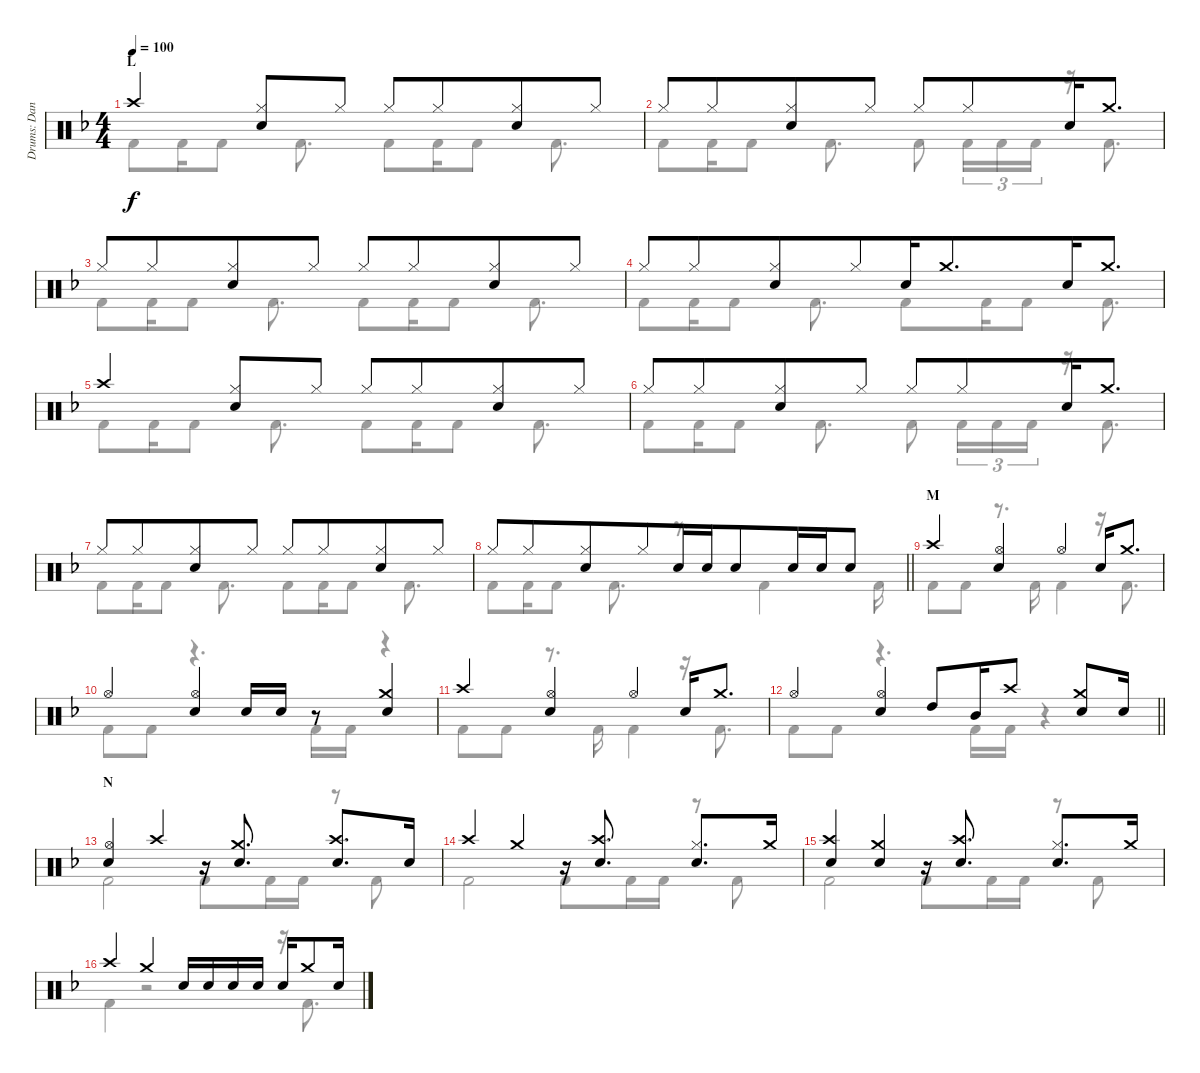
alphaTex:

\track ("Drums: Dana" "Drums: Dan") {instrument percussion}
\staff {score}
\articulation defaults
\voice
\ts (4 4)
\section ("" "L")
\tempo 100
\clef neutral
\ks f "Crash high (hit)".4{dy f beam merge}
("Hi-Hat (closed)" "Snare (hit) 2").8 "Hi-Hat (closed)".8 "Hi-Hat (closed)".8 "Hi-Hat (closed)".8{beam merge} ("Hi-Hat (closed)" "Snare (hit) 2").8 "Hi-Hat (closed)".8 |
"Hi-Hat (closed)".8 "Hi-Hat (closed)".8{beam merge} ("Hi-Hat (closed)" "Snare (hit) 2").8 "Hi-Hat (closed)".8 "Hi-Hat (closed)".8 "Hi-Hat (closed)".8{beam merge} "Snare (hit) 2".16 "Crash medium (hit)".8{d} |
"Hi-Hat (closed)".8 "Hi-Hat (closed)".8{beam merge} ("Hi-Hat (closed)" "Snare (hit) 2").8 "Hi-Hat (closed)".8 "Hi-Hat (closed)".8 "Hi-Hat (closed)".8{beam merge} ("Hi-Hat (closed)" "Snare (hit) 2").8 "Hi-Hat (closed)".8 |
"Hi-Hat (closed)".8 "Hi-Hat (closed)".8{beam merge} ("Hi-Hat (closed)" "Snare (hit) 2").8 "Hi-Hat (closed)".8{beam merge} "Snare (hit) 2".16 "Crash medium (hit)".8{d beam merge} "Snare (hit) 2".16 "Crash medium (hit)".8{d} |
"Crash high (hit)".4{beam merge} ("Hi-Hat (closed)" "Snare (hit) 2").8 "Hi-Hat (closed)".8 "Hi-Hat (closed)".8 "Hi-Hat (closed)".8{beam merge} ("Hi-Hat (closed)" "Snare (hit) 2").8 "Hi-Hat (closed)".8 |
"Hi-Hat (closed)".8 "Hi-Hat (closed)".8{beam merge} ("Hi-Hat (closed)" "Snare (hit) 2").8 "Hi-Hat (closed)".8 "Hi-Hat (closed)".8 "Hi-Hat (closed)".8{beam merge} "Snare (hit) 2".16 "Crash medium (hit)".8{d} |
"Hi-Hat (closed)".8 "Hi-Hat (closed)".8{beam merge} ("Hi-Hat (closed)" "Snare (hit) 2").8 "Hi-Hat (closed)".8 "Hi-Hat (closed)".8 "Hi-Hat (closed)".8{beam merge} ("Hi-Hat (closed)" "Snare (hit) 2").8 "Hi-Hat (closed)".8 |
\barLineRight lightlight "Hi-Hat (closed)".8 "Hi-Hat (closed)".8{beam merge}
("Hi-Hat (closed)" "Snare (hit) 2").8 "Hi-Hat (closed)".8{beam merge} "Snare (hit) 2".16 "Snare (hit) 2".16{beam merge} "Snare (hit) 2".8{beam merge} "Snare (hit) 2".16 "Snare (hit) 2".16{beam merge} "Snare (hit) 2".8 |
\section ("" "M")
"Crash high (hit)".4 ("Hi-Hat (open)" "Snare (hit) 2").4 "Hi-Hat (open)".4 "Snare (hit) 2".16 "Crash medium (hit)".8{d} |
"Hi-Hat (open)".4 ("Hi-Hat (open)" "Snare (hit) 2").4 "Snare (hit) 2".16 "Snare (hit) 2".16 r.8 ("Crash medium (hit)" "Snare (hit) 2").4 |
"Crash high (hit)".4 ("Hi-Hat (open)" "Snare (hit) 2").4 "Hi-Hat (open)".4 "Snare (hit) 2".16 "Crash medium (hit)".8{d} |
\barLineRight lightlight "Hi-Hat (open)".4
("Hi-Hat (open)" "Snare (hit) 2").4 "High Tom (hit)".8 "Mid Tom (hit)".16 "Crash high (hit)".8 ("Crash medium (hit)" "Snare (hit) 2").8 "Snare (hit) 2".16 |
\section ("" "N")
("Hi-Hat (open)" "Snare (hit) 2").4 "Crash high (hit)".4 r.16 ("Crash medium (hit)" "Snare (hit) 2").8{d} ("Crash high (hit)" "Snare (hit) 2").8{d} "Snare (hit) 2".16 |
"Crash high (hit)".4 "Crash medium (hit)".4 r.16 ("Crash high (hit)" "Snare (hit) 2").8{d} ("Hi-Hat (closed)" "Snare (hit) 2").8{d} "Crash medium (hit)".16 |
("Crash high (hit)" "Snare (hit) 2").4 ("Crash medium (hit)" "Snare (hit) 2").4 r.16 ("Crash high (hit)" "Snare (hit) 2").8{d} ("Hi-Hat (closed)" "Snare (hit) 2").8{d} "Crash medium (hit)".16 |
"Crash high (hit)".4 "Crash medium (hit)".4 "Snare (hit) 2".16 "Snare (hit) 2".16 "Snare (hit) 2".16 "Snare (hit) 2".16 "Snare (hit) 2".16 "Crash medium (hit)".8 "Snare (hit) 2".16
\voice
\clef neutral
\ottava regular
\simile none
\ks f "Kick (hit) 2".8{dy f} "Kick (hit) 2".16 "Kick (hit) 2".8 "Kick (hit) 2".8{d} "Kick (hit) 2".8 "Kick (hit) 2".16 "Kick (hit) 2".8 "Kick (hit) 2".8{d}
|
"Kick (hit) 2".8 "Kick (hit) 2".16 "Kick (hit) 2".8 "Kick (hit) 2".8{d} "Kick (hit) 2".8 "Kick (hit) 2".16{tu (3 2)} "Kick (hit) 2".16{tu (3 2)} "Kick (hit) 2".16{tu (3 2)} r.16 "Kick (hit) 2".8{d} |
"Kick (hit) 2".8 "Kick (hit) 2".16 "Kick (hit) 2".8 "Kick (hit) 2".8{d} "Kick (hit) 2".8 "Kick (hit) 2".16 "Kick (hit) 2".8 "Kick (hit) 2".8{d} |
"Kick (hit) 2".8 "Kick (hit) 2".16 "Kick (hit) 2".8 "Kick (hit) 2".8{d} "Kick (hit) 2".8 "Kick (hit) 2".16 "Kick (hit) 2".8 "Kick (hit) 2".8{d} |
"Kick (hit) 2".8 "Kick (hit) 2".16 "Kick (hit) 2".8 "Kick (hit) 2".8{d} "Kick (hit) 2".8 "Kick (hit) 2".16 "Kick (hit) 2".8 "Kick (hit) 2".8{d} |
"Kick (hit) 2".8 "Kick (hit) 2".16 "Kick (hit) 2".8 "Kick (hit) 2".8{d} "Kick (hit) 2".8 "Kick (hit) 2".16{tu (3 2)} "Kick (hit) 2".16{tu (3 2)} "Kick (hit) 2".16{tu (3 2)} r.16 "Kick (hit) 2".8{d} |
"Kick (hit) 2".8 "Kick (hit) 2".16 "Kick (hit) 2".8 "Kick (hit) 2".8{d} "Kick (hit) 2".8 "Kick (hit) 2".16 "Kick (hit) 2".8 "Kick (hit) 2".8{d} |
\barLineRight lightlight "Kick (hit) 2".8 "Kick (hit) 2".16 "Kick (hit) 2".8 "Kick (hit) 2".8{d}
r.8{d} "Kick (hit) 2".4 "Kick (hit) 2".16 |
"Kick (hit) 2".8 "Kick (hit) 2".8 r.8{d} "Kick (hit) 2".16 "Kick (hit) 2".4 r.16 "Kick (hit) 2".8{d} |
"Kick (hit) 2".8 "Kick (hit) 2".8 r.4{d} "Kick (hit) 2".16 "Kick (hit) 2".16 r.4 |
"Kick (hit) 2".8 "Kick (hit) 2".8 r.8{d} "Kick (hit) 2".16 "Kick (hit) 2".4 r.16 "Kick (hit) 2".8{d} |
\barLineRight lightlight "Kick (hit) 2".8 "Kick (hit) 2".8
r.4{d} "Kick (hit) 2".16 "Kick (hit) 2".16 r.4 |
"Kick (hit) 2".2 "Kick (hit) 2".8 "Kick (hit) 2".16 "Kick (hit) 2".16 r.8 "Kick (hit) 2".8 |
"Kick (hit) 2".2 "Kick (hit) 2".8 "Kick (hit) 2".16 "Kick (hit) 2".16 r.8 "Kick (hit) 2".8 |
"Kick (hit) 2".2 "Kick (hit) 2".8 "Kick (hit) 2".16 "Kick (hit) 2".16 r.8 "Kick (hit) 2".8 |
"Kick (hit) 2".4 r.2 r.16 "Kick (hit) 2".8{d}
